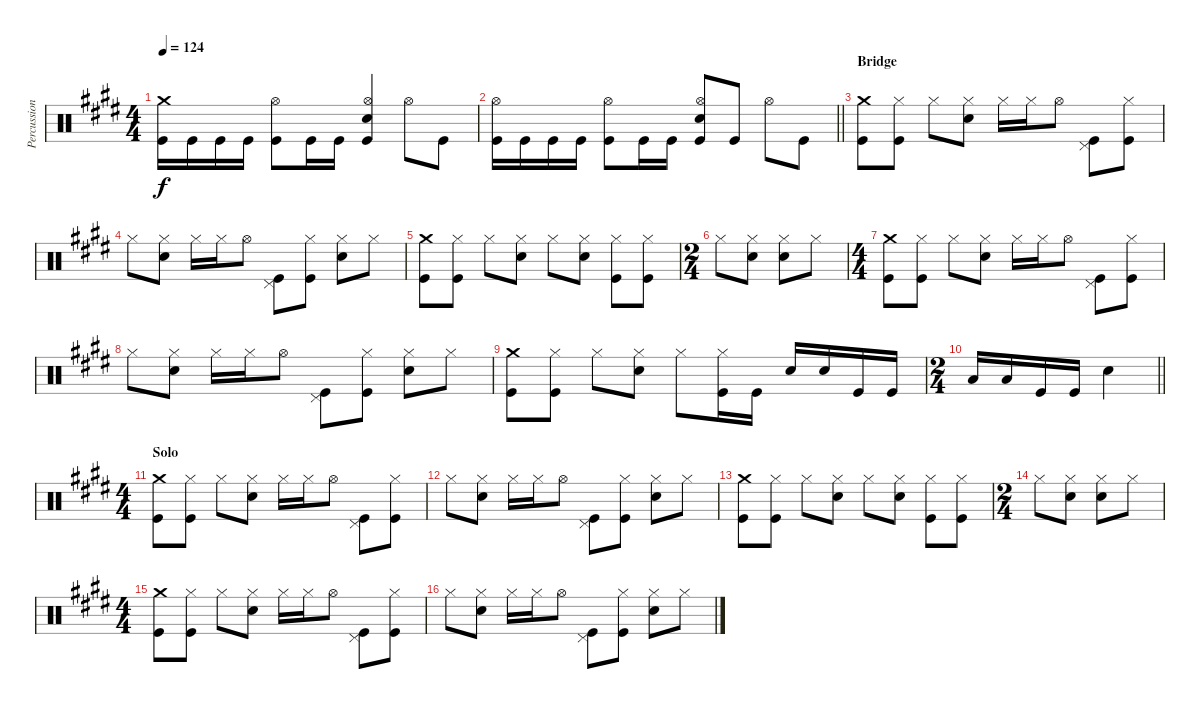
\track ("Percussion" "Percussion") {instrument percussion}
\staff {score}
\articulation defaults
\ts (4 4)
\tempo 124
\clef neutral
\ks e
("Crash medium (hit)" "Kick (hit)").16{dy f} "Kick (hit)".16 "Kick (hit)".16 "Kick (hit)".16 ("Hi-Hat (open)" "Kick (hit)").8 "Kick (hit)".16 "Kick (hit)".16 ("Hi-Hat (open)" "Electric Snare (hit)" "Kick (hit)").4 "Hi-Hat (open)".8 "Kick (hit)".8 |
\barLineRight lightlight
("Hi-Hat (open)" "Kick (hit)").16 "Kick (hit)".16 "Kick (hit)".16 "Kick (hit)".16 ("Hi-Hat (open)" "Kick (hit)").8 "Kick (hit)".16 "Kick (hit)".16 ("Hi-Hat (open)" "Electric Snare (hit)" "Kick (hit)").8 "Kick (hit)".8 "Hi-Hat (open)".8 "Kick (hit)".8 |
\section ("" "Bridge")
("Crash medium (hit)" "Kick (hit)").8 ("Hi-Hat (closed)" "Kick (hit)").8 "Hi-Hat (closed)".8 ("Hi-Hat (closed)" "Electric Snare (hit)").8 "Hi-Hat (closed)".16 "Hi-Hat (closed)".16 "Hi-Hat (open)".8 ("Pedal Hi-Hat (hit)" "Kick (hit)").8 ("Hi-Hat (closed)" "Kick (hit)").8 |
"Hi-Hat (closed)".8 ("Hi-Hat (closed)" "Electric Snare (hit)").8 "Hi-Hat (closed)".16 "Hi-Hat (closed)".16 "Hi-Hat (open)".8 ("Pedal Hi-Hat (hit)" "Kick (hit)").8 ("Hi-Hat (closed)" "Kick (hit)").8 ("Hi-Hat (closed)" "Electric Snare (hit)").8 "Hi-Hat (closed)".8 |
("Crash medium (hit)" "Kick (hit)").8 ("Hi-Hat (closed)" "Kick (hit)").8 "Hi-Hat (closed)".8 ("Hi-Hat (closed)" "Electric Snare (hit)").8 "Hi-Hat (closed)".8 ("Hi-Hat (closed)" "Electric Snare (hit)").8 ("Hi-Hat (closed)" "Kick (hit)").8 ("Hi-Hat (closed)" "Kick (hit)").8 |
\ts (2 4)
"Hi-Hat (closed)".8 ("Hi-Hat (closed)" "Electric Snare (hit)").8 ("Hi-Hat (closed)" "Electric Snare (hit)").8 "Hi-Hat (closed)".8 |
\ts (4 4)
("Crash medium (hit)" "Kick (hit)").8 ("Hi-Hat (closed)" "Kick (hit)").8 "Hi-Hat (closed)".8 ("Hi-Hat (closed)" "Electric Snare (hit)").8 "Hi-Hat (closed)".16 "Hi-Hat (closed)".16 "Hi-Hat (open)".8 ("Pedal Hi-Hat (hit)" "Kick (hit)").8 ("Hi-Hat (closed)" "Kick (hit)").8 |
"Hi-Hat (closed)".8 ("Hi-Hat (closed)" "Electric Snare (hit)").8 "Hi-Hat (closed)".16 "Hi-Hat (closed)".16 "Hi-Hat (open)".8 ("Pedal Hi-Hat (hit)" "Kick (hit)").8 ("Hi-Hat (closed)" "Kick (hit)").8 ("Hi-Hat (closed)" "Electric Snare (hit)").8 "Hi-Hat (closed)".8 |
("Crash medium (hit)" "Kick (hit)").8 ("Hi-Hat (closed)" "Kick (hit)").8 "Hi-Hat (closed)".8 ("Hi-Hat (closed)" "Electric Snare (hit)").8 "Hi-Hat (closed)".8 ("Hi-Hat (closed)" "Kick (hit)").16 "Kick (hit)".16 "Electric Snare (hit)".16 "Electric Snare (hit)".16 "Kick (hit)".16 "Kick (hit)".16 |
\ts (2 4)
\barLineRight lightlight "Low Tom (hit)".16 "Low Tom (hit)".16 "Kick (hit)".16 "Kick (hit)".16 "Electric Snare (hit)".4
|
\ts (4 4)
\section ("" "Solo")
("Crash medium (hit)" "Kick (hit)").8 ("Hi-Hat (closed)" "Kick (hit)").8 "Hi-Hat (closed)".8 ("Hi-Hat (closed)" "Electric Snare (hit)").8 "Hi-Hat (closed)".16 "Hi-Hat (closed)".16 "Hi-Hat (open)".8 ("Pedal Hi-Hat (hit)" "Kick (hit)").8 ("Hi-Hat (closed)" "Kick (hit)").8 |
"Hi-Hat (closed)".8 ("Hi-Hat (closed)" "Electric Snare (hit)").8 "Hi-Hat (closed)".16 "Hi-Hat (closed)".16 "Hi-Hat (open)".8 ("Pedal Hi-Hat (hit)" "Kick (hit)").8 ("Hi-Hat (closed)" "Kick (hit)").8 ("Hi-Hat (closed)" "Electric Snare (hit)").8 "Hi-Hat (closed)".8 |
("Crash medium (hit)" "Kick (hit)").8 ("Hi-Hat (closed)" "Kick (hit)").8 "Hi-Hat (closed)".8 ("Hi-Hat (closed)" "Electric Snare (hit)").8 "Hi-Hat (closed)".8 ("Hi-Hat (closed)" "Electric Snare (hit)").8 ("Hi-Hat (closed)" "Kick (hit)").8 ("Hi-Hat (closed)" "Kick (hit)").8 |
\ts (2 4)
"Hi-Hat (closed)".8 ("Hi-Hat (closed)" "Electric Snare (hit)").8 ("Hi-Hat (closed)" "Electric Snare (hit)").8 "Hi-Hat (closed)".8 |
\ts (4 4)
("Crash medium (hit)" "Kick (hit)").8 ("Hi-Hat (closed)" "Kick (hit)").8 "Hi-Hat (closed)".8 ("Hi-Hat (closed)" "Electric Snare (hit)").8 "Hi-Hat (closed)".16 "Hi-Hat (closed)".16 "Hi-Hat (open)".8 ("Pedal Hi-Hat (hit)" "Kick (hit)").8 ("Hi-Hat (closed)" "Kick (hit)").8 |
"Hi-Hat (closed)".8 ("Hi-Hat (closed)" "Electric Snare (hit)").8 "Hi-Hat (closed)".16 "Hi-Hat (closed)".16 "Hi-Hat (open)".8 ("Pedal Hi-Hat (hit)" "Kick (hit)").8 ("Hi-Hat (closed)" "Kick (hit)").8 ("Hi-Hat (closed)" "Electric Snare (hit)").8 "Hi-Hat (closed)".8
